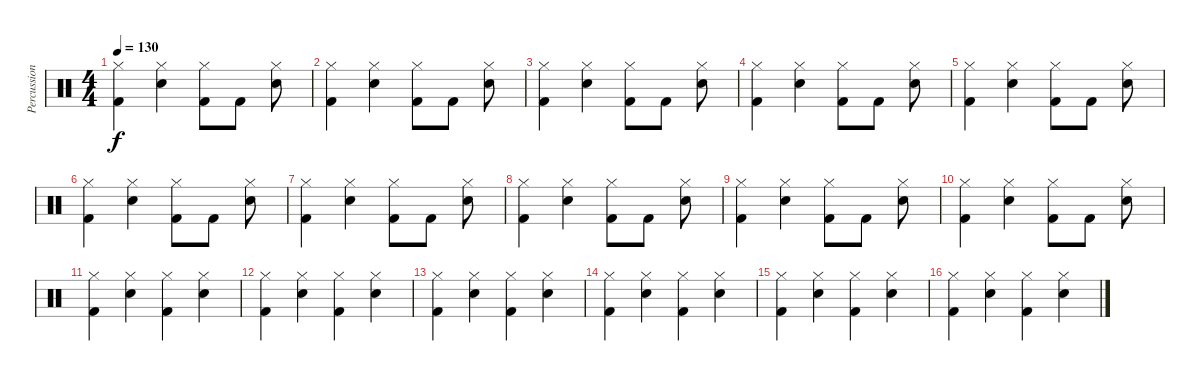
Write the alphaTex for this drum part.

\track ("Percussion" "Percussion") {instrument percussion}
\staff {score}
\articulation defaults
\ts (4 4)
\tempo 130
\clef neutral
\ks c
("Kick (hit) 2" "Hi-Hat (closed)").4{dy f} ("Electric Snare (hit)" "Hi-Hat (closed)").4 ("Kick (hit) 2" "Hi-Hat (closed)").8 "Kick (hit) 2".8 ("Electric Snare (hit)" "Hi-Hat (closed)").8 |
("Kick (hit) 2" "Hi-Hat (closed)").4 ("Electric Snare (hit)" "Hi-Hat (closed)").4 ("Kick (hit) 2" "Hi-Hat (closed)").8 "Kick (hit) 2".8 ("Electric Snare (hit)" "Hi-Hat (closed)").8 |
("Kick (hit) 2" "Hi-Hat (closed)").4 ("Electric Snare (hit)" "Hi-Hat (closed)").4 ("Kick (hit) 2" "Hi-Hat (closed)").8 "Kick (hit) 2".8 ("Electric Snare (hit)" "Hi-Hat (closed)").8 |
("Kick (hit) 2" "Hi-Hat (closed)").4 ("Electric Snare (hit)" "Hi-Hat (closed)").4 ("Kick (hit) 2" "Hi-Hat (closed)").8 "Kick (hit) 2".8 ("Electric Snare (hit)" "Hi-Hat (closed)").8 |
("Kick (hit) 2" "Hi-Hat (closed)").4 ("Electric Snare (hit)" "Hi-Hat (closed)").4 ("Kick (hit) 2" "Hi-Hat (closed)").8 "Kick (hit) 2".8 ("Electric Snare (hit)" "Hi-Hat (closed)").8 |
("Kick (hit) 2" "Hi-Hat (closed)").4 ("Electric Snare (hit)" "Hi-Hat (closed)").4 ("Kick (hit) 2" "Hi-Hat (closed)").8 "Kick (hit) 2".8 ("Electric Snare (hit)" "Hi-Hat (closed)").8 |
("Kick (hit) 2" "Hi-Hat (closed)").4 ("Electric Snare (hit)" "Hi-Hat (closed)").4 ("Kick (hit) 2" "Hi-Hat (closed)").8 "Kick (hit) 2".8 ("Electric Snare (hit)" "Hi-Hat (closed)").8 |
("Kick (hit) 2" "Hi-Hat (closed)").4 ("Electric Snare (hit)" "Hi-Hat (closed)").4 ("Kick (hit) 2" "Hi-Hat (closed)").8 "Kick (hit) 2".8 ("Electric Snare (hit)" "Hi-Hat (closed)").8 |
("Kick (hit) 2" "Hi-Hat (closed)").4 ("Electric Snare (hit)" "Hi-Hat (closed)").4 ("Kick (hit) 2" "Hi-Hat (closed)").8 "Kick (hit) 2".8 ("Electric Snare (hit)" "Hi-Hat (closed)").8 |
("Kick (hit) 2" "Hi-Hat (closed)").4 ("Electric Snare (hit)" "Hi-Hat (closed)").4 ("Kick (hit) 2" "Hi-Hat (closed)").8 "Kick (hit) 2".8 ("Electric Snare (hit)" "Hi-Hat (closed)").8 |
("Kick (hit) 2" "Hi-Hat (closed)").4 ("Electric Snare (hit)" "Hi-Hat (closed)").4 ("Kick (hit) 2" "Hi-Hat (closed)").4 ("Electric Snare (hit)" "Hi-Hat (closed)").4 |
("Kick (hit) 2" "Hi-Hat (closed)").4 ("Electric Snare (hit)" "Hi-Hat (closed)").4 ("Kick (hit) 2" "Hi-Hat (closed)").4 ("Electric Snare (hit)" "Hi-Hat (closed)").4 |
("Kick (hit) 2" "Hi-Hat (closed)").4 ("Electric Snare (hit)" "Hi-Hat (closed)").4 ("Kick (hit) 2" "Hi-Hat (closed)").4 ("Electric Snare (hit)" "Hi-Hat (closed)").4 |
("Kick (hit) 2" "Hi-Hat (closed)").4 ("Electric Snare (hit)" "Hi-Hat (closed)").4 ("Kick (hit) 2" "Hi-Hat (closed)").4 ("Electric Snare (hit)" "Hi-Hat (closed)").4 |
("Kick (hit) 2" "Hi-Hat (closed)").4 ("Electric Snare (hit)" "Hi-Hat (closed)").4 ("Kick (hit) 2" "Hi-Hat (closed)").4 ("Electric Snare (hit)" "Hi-Hat (closed)").4 |
("Kick (hit) 2" "Hi-Hat (closed)").4 ("Electric Snare (hit)" "Hi-Hat (closed)").4 ("Kick (hit) 2" "Hi-Hat (closed)").4 ("Electric Snare (hit)" "Hi-Hat (closed)").4
